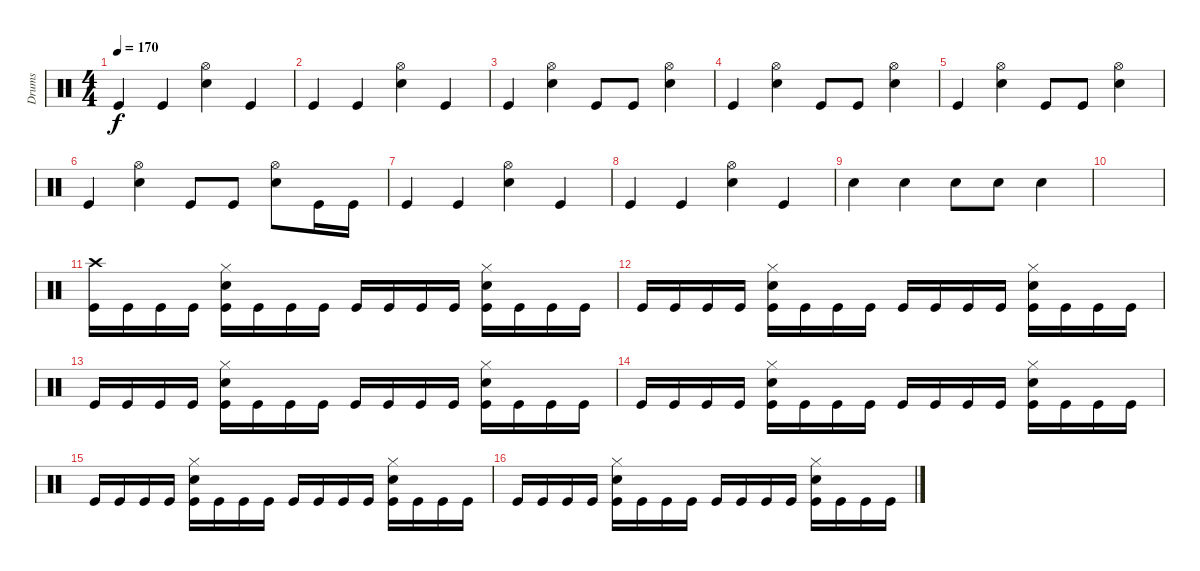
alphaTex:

\track ("Drums" "Drums") {instrument percussion}
\staff {score}
\articulation defaults
\ts (4 4)
\tempo 170
\clef neutral
\ks c "Kick (hit)".4{dy f} "Kick (hit)".4
("Hi-Hat (open)" "Snare (hit) 2").4 "Kick (hit)".4 |
"Kick (hit)".4 "Kick (hit)".4 ("Hi-Hat (open)" "Snare (hit) 2").4 "Kick (hit)".4 |
"Kick (hit)".4 ("Hi-Hat (open)" "Snare (hit) 2").4 "Kick (hit)".8 "Kick (hit)".8 ("Hi-Hat (open)" "Snare (hit) 2").4 |
"Kick (hit)".4 ("Hi-Hat (open)" "Snare (hit) 2").4 "Kick (hit)".8 "Kick (hit)".8 ("Hi-Hat (open)" "Snare (hit) 2").4 |
"Kick (hit)".4 ("Hi-Hat (open)" "Snare (hit) 2").4 "Kick (hit)".8 "Kick (hit)".8 ("Hi-Hat (open)" "Snare (hit) 2").4 |
"Kick (hit)".4 ("Hi-Hat (open)" "Snare (hit) 2").4 "Kick (hit)".8 "Kick (hit)".8 ("Hi-Hat (open)" "Snare (hit) 2").8 "Kick (hit)".16 "Kick (hit)".16 |
"Kick (hit)".4 "Kick (hit)".4 ("Hi-Hat (open)" "Snare (hit) 2").4 "Kick (hit)".4 |
"Kick (hit)".4 "Kick (hit)".4 ("Hi-Hat (open)" "Snare (hit) 2").4 "Kick (hit)".4 |
"Snare (hit) 2".4 "Snare (hit) 2".4 "Snare (hit) 2".8 "Snare (hit) 2".8 "Snare (hit) 2".4 |
|
("Crash high (hit)" "Kick (hit)").16 "Kick (hit)".16 "Kick (hit)".16 "Kick (hit)".16 ("Hi-Hat (closed)" "Snare (hit) 2" "Kick (hit)").16 "Kick (hit)".16 "Kick (hit)".16 "Kick (hit)".16 "Kick (hit)".16 "Kick (hit)".16 "Kick (hit)".16 "Kick (hit)".16 ("Hi-Hat (closed)" "Snare (hit) 2" "Kick (hit)").16 "Kick (hit)".16 "Kick (hit)".16 "Kick (hit)".16 |
"Kick (hit)".16 "Kick (hit)".16 "Kick (hit)".16 "Kick (hit)".16 ("Hi-Hat (closed)" "Snare (hit) 2" "Kick (hit)").16 "Kick (hit)".16 "Kick (hit)".16 "Kick (hit)".16 "Kick (hit)".16 "Kick (hit)".16 "Kick (hit)".16 "Kick (hit)".16 ("Hi-Hat (closed)" "Snare (hit) 2" "Kick (hit)").16 "Kick (hit)".16 "Kick (hit)".16 "Kick (hit)".16 |
"Kick (hit)".16 "Kick (hit)".16 "Kick (hit)".16 "Kick (hit)".16 ("Hi-Hat (closed)" "Snare (hit) 2" "Kick (hit)").16 "Kick (hit)".16 "Kick (hit)".16 "Kick (hit)".16 "Kick (hit)".16 "Kick (hit)".16 "Kick (hit)".16 "Kick (hit)".16 ("Hi-Hat (closed)" "Snare (hit) 2" "Kick (hit)").16 "Kick (hit)".16 "Kick (hit)".16 "Kick (hit)".16 |
"Kick (hit)".16 "Kick (hit)".16 "Kick (hit)".16 "Kick (hit)".16 ("Hi-Hat (closed)" "Snare (hit) 2" "Kick (hit)").16 "Kick (hit)".16 "Kick (hit)".16 "Kick (hit)".16 "Kick (hit)".16 "Kick (hit)".16 "Kick (hit)".16 "Kick (hit)".16 ("Hi-Hat (closed)" "Snare (hit) 2" "Kick (hit)").16 "Kick (hit)".16 "Kick (hit)".16 "Kick (hit)".16 |
"Kick (hit)".16 "Kick (hit)".16 "Kick (hit)".16 "Kick (hit)".16 ("Hi-Hat (closed)" "Snare (hit) 2" "Kick (hit)").16 "Kick (hit)".16 "Kick (hit)".16 "Kick (hit)".16 "Kick (hit)".16 "Kick (hit)".16 "Kick (hit)".16 "Kick (hit)".16 ("Hi-Hat (closed)" "Snare (hit) 2" "Kick (hit)").16 "Kick (hit)".16 "Kick (hit)".16 "Kick (hit)".16 |
"Kick (hit)".16 "Kick (hit)".16 "Kick (hit)".16 "Kick (hit)".16 ("Hi-Hat (closed)" "Snare (hit) 2" "Kick (hit)").16 "Kick (hit)".16 "Kick (hit)".16 "Kick (hit)".16 "Kick (hit)".16 "Kick (hit)".16 "Kick (hit)".16 "Kick (hit)".16 ("Hi-Hat (closed)" "Snare (hit) 2" "Kick (hit)").16 "Kick (hit)".16 "Kick (hit)".16 "Kick (hit)".16
